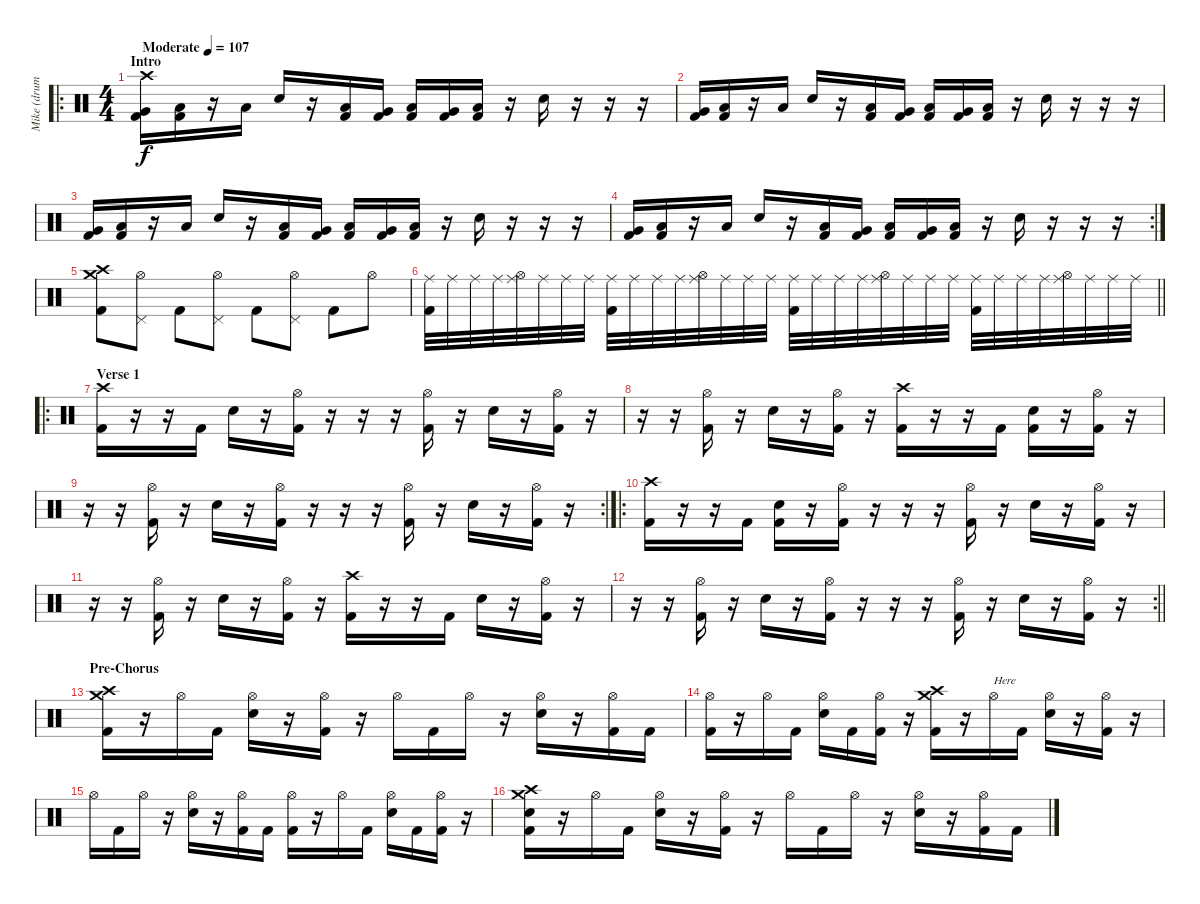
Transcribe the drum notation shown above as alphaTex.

\track ("Mike (drums)" "Mike (drum") {instrument percussion}
\staff {score}
\articulation defaults
\ro
\ts (4 4)
\section ("" "Intro")
\tempo (107 "Moderate")
\clef neutral
\ks c
("Crash high (hit)" "Very Low Tom (hit)" "Kick (hit) 2").16{dy f} ("Low Floor Tom (hit)" "Kick (hit) 2").16 r.16 "Low Floor Tom (hit)".16 "Electric Snare (hit)".16 r.16 ("Kick (hit) 2" "Low Floor Tom (hit)").16 ("Very Low Tom (hit)" "Kick (hit) 2").16 ("Kick (hit) 2" "Low Floor Tom (hit)").16 ("Very Low Tom (hit)" "Kick (hit) 2").16 ("Kick (hit) 2" "Low Floor Tom (hit)").16 r.16 "Electric Snare (hit)".16 r.16 r.16 r.16 |
("Very Low Tom (hit)" "Kick (hit) 2").16 ("Low Floor Tom (hit)" "Kick (hit) 2").16 r.16 "Low Floor Tom (hit)".16 "Electric Snare (hit)".16 r.16 ("Kick (hit) 2" "Low Floor Tom (hit)").16 ("Kick (hit) 2" "Very Low Tom (hit)").16 ("Kick (hit) 2" "Low Floor Tom (hit)").16 ("Kick (hit) 2" "Very Low Tom (hit)").16 ("Low Floor Tom (hit)" "Kick (hit) 2").16 r.16 "Electric Snare (hit)".16 r.16 r.16 r.16 |
("Very Low Tom (hit)" "Kick (hit) 2").16 ("Low Floor Tom (hit)" "Kick (hit) 2").16 r.16 "Low Floor Tom (hit)".16 "Electric Snare (hit)".16 r.16 ("Low Floor Tom (hit)" "Kick (hit) 2").16 ("Very Low Tom (hit)" "Kick (hit) 2").16 ("Low Floor Tom (hit)" "Kick (hit) 2").16 ("Very Low Tom (hit)" "Kick (hit) 2").16 ("Low Floor Tom (hit)" "Kick (hit) 2").16 r.16 "Electric Snare (hit)".16 r.16 r.16 r.16 |
\rc 2
("Very Low Tom (hit)" "Kick (hit) 2").16 ("Low Floor Tom (hit)" "Kick (hit) 2").16 r.16 "Low Floor Tom (hit)".16 "Electric Snare (hit)".16 r.16 ("Low Floor Tom (hit)" "Kick (hit) 2").16 ("Very Low Tom (hit)" "Kick (hit) 2").16 ("Low Floor Tom (hit)" "Kick (hit) 2").16 ("Very Low Tom (hit)" "Kick (hit) 2").16 ("Low Floor Tom (hit)" "Kick (hit) 2").16 r.16 "Electric Snare (hit)".16 r.16 r.16 r.16 |
("Crash high (hit)" "Crash medium (hit)" "Kick (hit) 2").8 ("Pedal Hi-Hat (hit)" "Hi-Hat (open)").8 "Kick (hit) 2".8 ("Pedal Hi-Hat (hit)" "Hi-Hat (open)").8 "Kick (hit) 2".8 ("Pedal Hi-Hat (hit)" "Hi-Hat (open)").8 "Kick (hit) 2".8 "Hi-Hat (open)".8 |
\barLineRight lightlight
("Ride (middle)" "Kick (hit) 2").32 "Ride (middle)".32 "Ride (middle)".32 "Ride (middle)".32 ("Hi-Hat (open)" "Ride (middle)").32 "Ride (middle)".32 "Ride (middle)".32 "Ride (middle)".32 ("Ride (middle)" "Kick (hit) 2").32 "Ride (middle)".32 "Ride (middle)".32 "Ride (middle)".32 ("Hi-Hat (open)" "Ride (middle)").32 "Ride (middle)".32 "Ride (middle)".32 "Ride (middle)".32 ("Ride (middle)" "Kick (hit) 2").32 "Ride (middle)".32 "Ride (middle)".32 "Ride (middle)".32 ("Hi-Hat (open)" "Ride (middle)").32 "Ride (middle)".32 "Ride (middle)".32 "Ride (middle)".32 ("Ride (middle)" "Kick (hit) 2").32 "Ride (middle)".32 "Ride (middle)".32 "Ride (middle)".32 ("Hi-Hat (open)" "Ride (middle)").32 "Ride (middle)".32 "Ride (middle)".32 "Ride (middle)".32 |
\ro
\section ("" "Verse 1")
("Crash high (hit)" "Kick (hit) 2").16 r.16 r.16 "Kick (hit) 2".16 "Electric Snare (hit)".16 r.16 ("Hi-Hat (open)" "Kick (hit) 2").16 r.16 r.16 r.16 ("Kick (hit) 2" "Hi-Hat (open)").16 r.16 "Electric Snare (hit)".16 r.16 ("Hi-Hat (open)" "Kick (hit) 2").16 r.16 |
r.16 r.16 ("Hi-Hat (open)" "Kick (hit) 2").16 r.16 "Electric Snare (hit)".16 r.16 ("Hi-Hat (open)" "Kick (hit) 2").16 r.16 ("Crash high (hit)" "Kick (hit) 2").16 r.16 r.16 "Kick (hit) 2".16 ("Electric Snare (hit)" "Kick (hit) 2").16 r.16 ("Hi-Hat (open)" "Kick (hit) 2").16 r.16 |
\rc 2
r.16 r.16 ("Kick (hit) 2" "Hi-Hat (open)").16 r.16 "Electric Snare (hit)".16 r.16 ("Hi-Hat (open)" "Kick (hit) 2").16 r.16 r.16 r.16 ("Hi-Hat (open)" "Kick (hit) 2").16 r.16 "Electric Snare (hit)".16 r.16 ("Hi-Hat (open)" "Kick (hit) 2").16 r.16 |
\ro
("Crash high (hit)" "Kick (hit) 2").16 r.16 r.16 "Kick (hit) 2".16 ("Electric Snare (hit)" "Kick (hit) 2").16 r.16 ("Hi-Hat (open)" "Kick (hit) 2").16 r.16 r.16 r.16 ("Hi-Hat (open)" "Kick (hit) 2").16 r.16 "Electric Snare (hit)".16 r.16 ("Hi-Hat (open)" "Kick (hit) 2").16 r.16 |
r.16 r.16 ("Hi-Hat (open)" "Kick (hit) 2").16 r.16 "Electric Snare (hit)".16 r.16 ("Hi-Hat (open)" "Kick (hit) 2").16 r.16 ("Crash high (hit)" "Kick (hit) 2").16 r.16 r.16 "Kick (hit) 2".16 "Electric Snare (hit)".16 r.16 ("Hi-Hat (open)" "Kick (hit) 2").16 r.16 |
\rc 2
\barLineRight lightlight
r.16 r.16 ("Hi-Hat (open)" "Kick (hit) 2").16 r.16 "Electric Snare (hit)".16 r.16 ("Hi-Hat (open)" "Kick (hit) 2").16 r.16 r.16 r.16 ("Hi-Hat (open)" "Kick (hit) 2").16 r.16 "Electric Snare (hit)".16 r.16 ("Hi-Hat (open)" "Kick (hit) 2").16 r.16 |
\section ("" "Pre-Chorus")
("Crash medium (hit)" "Crash high (hit)" "Kick (hit) 2").16 r.16 "Hi-Hat (open)".16 "Kick (hit) 2".16 ("Hi-Hat (open)" "Electric Snare (hit)").16 r.16 ("Hi-Hat (open)" "Kick (hit) 2").16 r.16 "Hi-Hat (open)".16 "Kick (hit) 2".16 "Hi-Hat (open)".16 r.16 ("Electric Snare (hit)" "Hi-Hat (open)").16 r.16 ("Hi-Hat (open)" "Kick (hit) 2").16 "Kick (hit) 2".16 |
("Hi-Hat (open)" "Kick (hit) 2").16 r.16 "Hi-Hat (open)".16 "Kick (hit) 2".16 ("Hi-Hat (open)" "Electric Snare (hit)").16 "Kick (hit) 2".16 ("Hi-Hat (open)" "Kick (hit) 2").16 r.16 ("Crash medium (hit)" "Crash high (hit)" "Kick (hit) 2").16 r.16 "Hi-Hat (open)".16{txt "Here"} "Kick (hit) 2".16 ("Hi-Hat (open)" "Electric Snare (hit)").16 r.16 ("Hi-Hat (open)" "Kick (hit) 2").16 r.16 |
"Hi-Hat (open)".16 "Kick (hit) 2".16 "Hi-Hat (open)".16 r.16 ("Hi-Hat (open)" "Electric Snare (hit)").16 r.16 ("Hi-Hat (open)" "Kick (hit) 2").16 "Kick (hit) 2".16 ("Hi-Hat (open)" "Kick (hit) 2").16 r.16 "Hi-Hat (open)".16 "Kick (hit) 2".16 ("Hi-Hat (open)" "Electric Snare (hit)").16 "Kick (hit) 2".16 ("Hi-Hat (open)" "Kick (hit) 2").16 r.16 |
("Snare (hit)" "Crash high (hit)" "Crash medium (hit)" "Kick (hit) 2").16 r.16 "Hi-Hat (open)".16 "Kick (hit) 2".16 ("Hi-Hat (open)" "Electric Snare (hit)").16 r.16 ("Hi-Hat (open)" "Kick (hit) 2").16 r.16 "Hi-Hat (open)".16 "Kick (hit) 2".16 "Hi-Hat (open)".16 r.16 ("Hi-Hat (open)" "Electric Snare (hit)").16 r.16 ("Hi-Hat (open)" "Kick (hit) 2").16 "Kick (hit) 2".16
